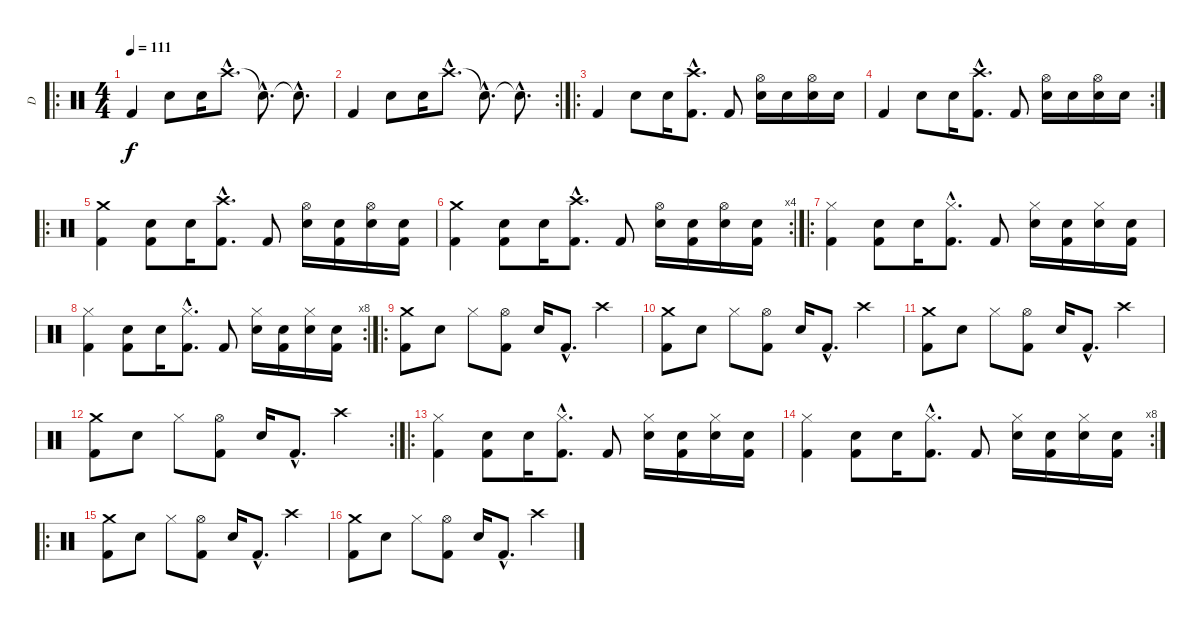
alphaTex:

\track ("D" "D") {instrument percussion}
\staff {score}
\articulation defaults
\ro
\ts (4 4)
\tempo 111
\clef neutral
\ks c "Kick (hit) 2".4{dy f} "Electric Snare (hit)".8 "Electric Snare (hit)".16 "Crash high (hit)"{hac}.8{d} "Snare (hit)"{hac t}.8{d} "Snare (hit)"{hac t}.8{d}
|
\rc 2 "Kick (hit) 2".4 "Electric Snare (hit)".8 "Electric Snare (hit)".16 "Crash high (hit)"{hac}.8{d} "Snare (hit)"{hac t}.8{d} "Snare (hit)"{hac t}.8{d}
|
\ro "Kick (hit) 2".4 "Electric Snare (hit)".8 "Electric Snare (hit)".16
("Crash high (hit)"{hac} "Kick (hit) 2"{hac}).8{d} "Kick (hit) 2".8 ("Hi-Hat (open)" "Electric Snare (hit)").16 "Electric Snare (hit)".16 ("Hi-Hat (open)" "Electric Snare (hit)").16 "Electric Snare (hit)".16 |
\rc 2 "Kick (hit) 2".4 "Electric Snare (hit)".8 "Electric Snare (hit)".16
("Crash high (hit)"{hac} "Kick (hit) 2"{hac}).8{d} "Kick (hit) 2".8 ("Hi-Hat (open)" "Electric Snare (hit)").16 "Electric Snare (hit)".16 ("Hi-Hat (open)" "Electric Snare (hit)").16 "Electric Snare (hit)".16 |
\ro
("Crash medium (hit)" "Kick (hit) 2").4 ("Electric Snare (hit)" "Kick (hit) 2").8 "Electric Snare (hit)".16 ("Crash high (hit)"{hac} "Kick (hit) 2"{hac}).8{d} "Kick (hit) 2".8 ("Hi-Hat (open)" "Electric Snare (hit)").16 ("Electric Snare (hit)" "Kick (hit) 2").16 ("Hi-Hat (open)" "Electric Snare (hit)").16 ("Electric Snare (hit)" "Kick (hit) 2").16 |
\rc 4
("Crash medium (hit)" "Kick (hit) 2").4 ("Electric Snare (hit)" "Kick (hit) 2").8 "Electric Snare (hit)".16 ("Crash high (hit)"{hac} "Kick (hit) 2"{hac}).8{d} "Kick (hit) 2".8 ("Hi-Hat (open)" "Electric Snare (hit)").16 ("Electric Snare (hit)" "Kick (hit) 2").16 ("Hi-Hat (open)" "Electric Snare (hit)").16 ("Electric Snare (hit)" "Kick (hit) 2").16 |
\ro
("Hi-Hat (closed)" "Kick (hit) 2").4 ("Electric Snare (hit)" "Kick (hit) 2").8 "Electric Snare (hit)".16 ("Hi-Hat (closed)"{hac} "Kick (hit) 2"{hac}).8{d} "Kick (hit) 2".8 ("Hi-Hat (closed)" "Electric Snare (hit)").16 ("Electric Snare (hit)" "Kick (hit) 2").16 ("Hi-Hat (closed)" "Electric Snare (hit)").16 ("Electric Snare (hit)" "Kick (hit) 2").16 |
\rc 8
("Hi-Hat (closed)" "Kick (hit) 2").4 ("Electric Snare (hit)" "Kick (hit) 2").8 "Electric Snare (hit)".16 ("Hi-Hat (closed)"{hac} "Kick (hit) 2"{hac}).8{d} "Kick (hit) 2".8 ("Hi-Hat (closed)" "Electric Snare (hit)").16 ("Electric Snare (hit)" "Kick (hit) 2").16 ("Hi-Hat (closed)" "Electric Snare (hit)").16 ("Electric Snare (hit)" "Kick (hit) 2").16 |
\ro
("Crash medium (hit)" "Kick (hit) 2").8 "Electric Snare (hit)".8 "Hi-Hat (closed)".8 ("Hi-Hat (open)" "Kick (hit) 2").8 "Electric Snare (hit)".16 "Kick (hit) 2"{hac}.8{d} "Crash high (hit)".4 |
("Crash medium (hit)" "Kick (hit) 2").8 "Electric Snare (hit)".8 "Hi-Hat (closed)".8 ("Hi-Hat (open)" "Kick (hit) 2").8 "Electric Snare (hit)".16 "Kick (hit) 2"{hac}.8{d} "Crash high (hit)".4 |
("Crash medium (hit)" "Kick (hit) 2").8 "Electric Snare (hit)".8 "Hi-Hat (closed)".8 ("Hi-Hat (open)" "Kick (hit) 2").8 "Electric Snare (hit)".16 "Kick (hit) 2"{hac}.8{d} "Crash high (hit)".4 |
\rc 2
("Crash medium (hit)" "Kick (hit) 2").8 "Electric Snare (hit)".8 "Hi-Hat (closed)".8 ("Hi-Hat (open)" "Kick (hit) 2").8 "Electric Snare (hit)".16 "Kick (hit) 2"{hac}.8{d} "Crash high (hit)".4 |
\ro
("Hi-Hat (closed)" "Kick (hit) 2").4 ("Electric Snare (hit)" "Kick (hit) 2").8 "Electric Snare (hit)".16 ("Hi-Hat (closed)"{hac} "Kick (hit) 2"{hac}).8{d} "Kick (hit) 2".8 ("Hi-Hat (closed)" "Electric Snare (hit)").16 ("Electric Snare (hit)" "Kick (hit) 2").16 ("Hi-Hat (closed)" "Electric Snare (hit)").16 ("Electric Snare (hit)" "Kick (hit) 2").16 |
\rc 8
("Hi-Hat (closed)" "Kick (hit) 2").4 ("Electric Snare (hit)" "Kick (hit) 2").8 "Electric Snare (hit)".16 ("Hi-Hat (closed)"{hac} "Kick (hit) 2"{hac}).8{d} "Kick (hit) 2".8 ("Hi-Hat (closed)" "Electric Snare (hit)").16 ("Electric Snare (hit)" "Kick (hit) 2").16 ("Hi-Hat (closed)" "Electric Snare (hit)").16 ("Electric Snare (hit)" "Kick (hit) 2").16 |
\ro
("Crash medium (hit)" "Kick (hit) 2").8 "Electric Snare (hit)".8 "Hi-Hat (closed)".8 ("Hi-Hat (open)" "Kick (hit) 2").8 "Electric Snare (hit)".16 "Kick (hit) 2"{hac}.8{d} "Crash high (hit)".4 |
("Crash medium (hit)" "Kick (hit) 2").8 "Electric Snare (hit)".8 "Hi-Hat (closed)".8 ("Hi-Hat (open)" "Kick (hit) 2").8 "Electric Snare (hit)".16 "Kick (hit) 2"{hac}.8{d} "Crash high (hit)".4
